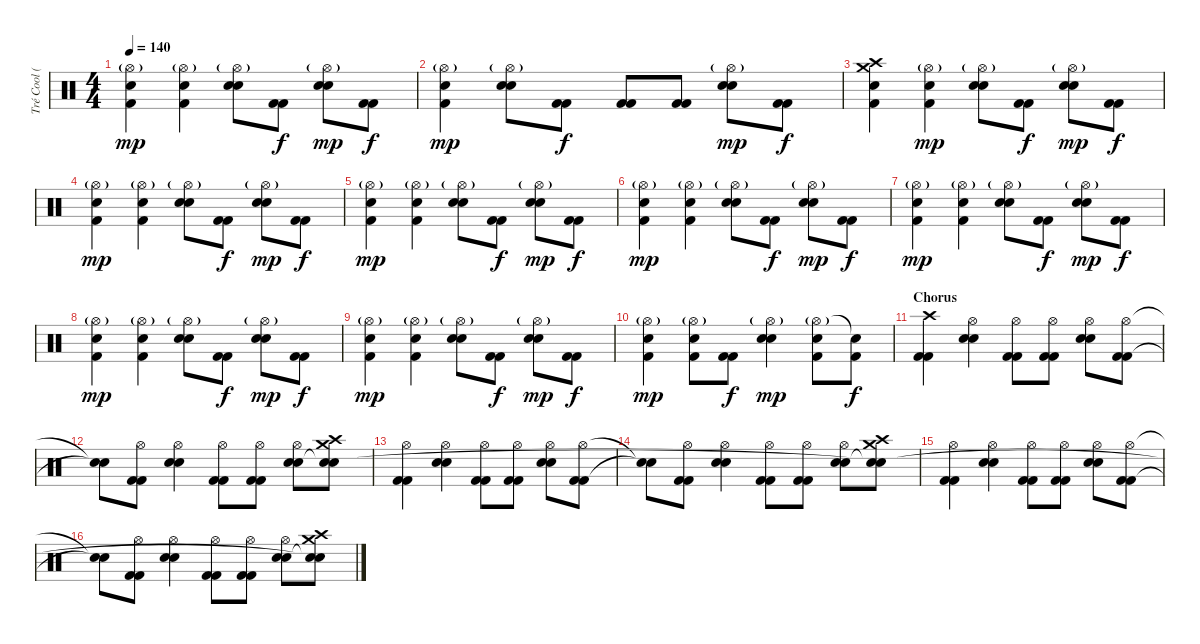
\track ("Tré Cool (Drums)" "Tré Cool (") {instrument percussion}
\staff {score}
\articulation defaults
\ts (4 4)
\tempo 140
\clef neutral
\ks c
("Hi-Hat (open)"{g} "Electric Snare (hit)" "Kick (hit) 2").4{dy mp} ("Hi-Hat (open)"{g} "Electric Snare (hit)" "Kick (hit) 2").4 ("Hi-Hat (open)"{g} "Electric Snare (hit)" "Electric Snare (hit)").8 ("Kick (hit) 2" "Kick (hit) 2").8{dy f} ("Hi-Hat (open)"{g} "Electric Snare (hit)" "Electric Snare (hit)").8{dy mp} ("Kick (hit) 2" "Kick (hit) 2").8{dy f} |
("Hi-Hat (open)"{g} "Electric Snare (hit)" "Kick (hit) 2").4{dy mp} ("Hi-Hat (open)"{g} "Electric Snare (hit)" "Electric Snare (hit)").8 ("Kick (hit) 2" "Kick (hit) 2").8{dy f} ("Kick (hit) 2" "Kick (hit) 2").8 ("Kick (hit) 2" "Kick (hit) 2").8 ("Hi-Hat (open)"{g} "Electric Snare (hit)" "Electric Snare (hit)").8{dy mp} ("Kick (hit) 2" "Kick (hit) 2").8{dy f} |
("Crash high (hit)" "Crash medium (hit)" "Electric Snare (hit)" "Kick (hit) 2").4 ("Hi-Hat (open)"{g} "Electric Snare (hit)" "Kick (hit) 2").4{dy mp} ("Hi-Hat (open)"{g} "Electric Snare (hit)" "Electric Snare (hit)").8 ("Kick (hit) 2" "Kick (hit) 2").8{dy f} ("Hi-Hat (open)"{g} "Electric Snare (hit)" "Electric Snare (hit)").8{dy mp} ("Kick (hit) 2" "Kick (hit) 2").8{dy f} |
("Hi-Hat (open)"{g} "Electric Snare (hit)" "Kick (hit) 2").4{dy mp} ("Hi-Hat (open)"{g} "Electric Snare (hit)" "Kick (hit) 2").4 ("Hi-Hat (open)"{g} "Electric Snare (hit)" "Electric Snare (hit)").8 ("Kick (hit) 2" "Kick (hit) 2").8{dy f} ("Hi-Hat (open)"{g} "Electric Snare (hit)" "Electric Snare (hit)").8{dy mp} ("Kick (hit) 2" "Kick (hit) 2").8{dy f} |
("Hi-Hat (open)"{g} "Electric Snare (hit)" "Kick (hit) 2").4{dy mp} ("Hi-Hat (open)"{g} "Electric Snare (hit)" "Kick (hit) 2").4 ("Hi-Hat (open)"{g} "Electric Snare (hit)" "Electric Snare (hit)").8 ("Kick (hit) 2" "Kick (hit) 2").8{dy f} ("Hi-Hat (open)"{g} "Electric Snare (hit)" "Electric Snare (hit)").8{dy mp} ("Kick (hit) 2" "Kick (hit) 2").8{dy f} |
("Hi-Hat (open)"{g} "Electric Snare (hit)" "Kick (hit) 2").4{dy mp} ("Hi-Hat (open)"{g} "Electric Snare (hit)" "Kick (hit) 2").4 ("Hi-Hat (open)"{g} "Electric Snare (hit)" "Electric Snare (hit)").8 ("Kick (hit) 2" "Kick (hit) 2").8{dy f} ("Hi-Hat (open)"{g} "Electric Snare (hit)" "Electric Snare (hit)").8{dy mp} ("Kick (hit) 2" "Kick (hit) 2").8{dy f} |
("Hi-Hat (open)"{g} "Electric Snare (hit)" "Kick (hit) 2").4{dy mp} ("Hi-Hat (open)"{g} "Electric Snare (hit)" "Kick (hit) 2").4 ("Hi-Hat (open)"{g} "Electric Snare (hit)" "Electric Snare (hit)").8 ("Kick (hit) 2" "Kick (hit) 2").8{dy f} ("Hi-Hat (open)"{g} "Electric Snare (hit)" "Electric Snare (hit)").8{dy mp} ("Kick (hit) 2" "Kick (hit) 2").8{dy f} |
("Hi-Hat (open)"{g} "Electric Snare (hit)" "Kick (hit) 2").4{dy mp} ("Hi-Hat (open)"{g} "Electric Snare (hit)" "Kick (hit) 2").4 ("Hi-Hat (open)"{g} "Electric Snare (hit)" "Electric Snare (hit)").8 ("Kick (hit) 2" "Kick (hit) 2").8{dy f} ("Hi-Hat (open)"{g} "Electric Snare (hit)" "Electric Snare (hit)").8{dy mp} ("Kick (hit) 2" "Kick (hit) 2").8{dy f} |
("Hi-Hat (open)"{g} "Electric Snare (hit)" "Kick (hit) 2").4{dy mp} ("Hi-Hat (open)"{g} "Electric Snare (hit)" "Kick (hit) 2").4 ("Hi-Hat (open)"{g} "Electric Snare (hit)" "Electric Snare (hit)").8 ("Kick (hit) 2" "Kick (hit) 2").8{dy f} ("Hi-Hat (open)"{g} "Electric Snare (hit)" "Electric Snare (hit)").8{dy mp} ("Kick (hit) 2" "Kick (hit) 2").8{dy f} |
("Hi-Hat (open)"{g} "Electric Snare (hit)" "Kick (hit) 2").4{dy mp} ("Hi-Hat (open)"{g} "Electric Snare (hit)" "Kick (hit) 2").8 ("Kick (hit) 2" "Kick (hit) 2").8{dy f} ("Hi-Hat (open)"{g} "Electric Snare (hit)" "Electric Snare (hit)").4{dy mp} ("Hi-Hat (open)"{g} "Electric Snare (hit)"{tr (38 64)} "Kick (hit) 2").8 ("Electric Snare (hit)"{t} "Kick (hit) 2").8{dy f} |
\section ("" "Chorus")
("Crash high (hit)" "Kick (hit) 2" "Kick (hit) 2").4 ("Hi-Hat (open)" "Electric Snare (hit)" "Electric Snare (hit)").4 ("Hi-Hat (open)" "Kick (hit) 2" "Kick (hit) 2").8 ("Hi-Hat (open)" "Kick (hit) 2" "Kick (hit) 2").8 ("Hi-Hat (open)" "Electric Snare (hit)" "Electric Snare (hit)").8 ("Hi-Hat (open)" "Kick (hit) 2" "Kick (hit) 2").8 |
("Snare (hit)"{t} "Snare (hit)"{t}).8 ("Hi-Hat (open)" "Kick (hit) 2" "Kick (hit) 2").8 ("Hi-Hat (open)" "Electric Snare (hit)" "Electric Snare (hit)").4 ("Hi-Hat (open)" "Kick (hit) 2" "Kick (hit) 2").8 ("Hi-Hat (open)" "Kick (hit) 2" "Kick (hit) 2").8 ("Hi-Hat (open)" "Electric Snare (hit)" "Electric Snare (hit)").8 ("Crash high (hit)" "Crash medium (hit)" "Snare (hit)"{t} "Snare (hit)").8 |
("Hi-Hat (open)" "Kick (hit) 2" "Kick (hit) 2").4 ("Hi-Hat (open)" "Electric Snare (hit)" "Electric Snare (hit)").4 ("Hi-Hat (open)" "Kick (hit) 2" "Kick (hit) 2").8 ("Hi-Hat (open)" "Kick (hit) 2" "Kick (hit) 2").8 ("Hi-Hat (open)" "Electric Snare (hit)" "Electric Snare (hit)").8 ("Hi-Hat (open)" "Kick (hit) 2" "Kick (hit) 2").8 |
("Snare (hit)"{t} "Snare (hit)"{t}).8 ("Hi-Hat (open)" "Kick (hit) 2" "Kick (hit) 2").8 ("Hi-Hat (open)" "Electric Snare (hit)" "Electric Snare (hit)").4 ("Hi-Hat (open)" "Kick (hit) 2" "Kick (hit) 2").8 ("Hi-Hat (open)" "Kick (hit) 2" "Kick (hit) 2").8 ("Hi-Hat (open)" "Electric Snare (hit)" "Electric Snare (hit)").8 ("Crash high (hit)" "Crash medium (hit)" "Snare (hit)"{t} "Snare (hit)"{t}).8 |
("Hi-Hat (open)" "Kick (hit) 2" "Kick (hit) 2").4 ("Hi-Hat (open)" "Electric Snare (hit)" "Electric Snare (hit)").4 ("Hi-Hat (open)" "Kick (hit) 2" "Kick (hit) 2").8 ("Hi-Hat (open)" "Kick (hit) 2" "Kick (hit) 2").8 ("Hi-Hat (open)" "Electric Snare (hit)" "Electric Snare (hit)").8 ("Hi-Hat (open)" "Kick (hit) 2" "Kick (hit) 2").8 |
("Snare (hit)"{t} "Snare (hit)"{t}).8 ("Hi-Hat (open)" "Kick (hit) 2" "Kick (hit) 2").8 ("Hi-Hat (open)" "Electric Snare (hit)" "Electric Snare (hit)").4 ("Hi-Hat (open)" "Kick (hit) 2" "Kick (hit) 2").8 ("Hi-Hat (open)" "Kick (hit) 2" "Kick (hit) 2").8 ("Hi-Hat (open)" "Electric Snare (hit)" "Electric Snare (hit)").8 ("Crash high (hit)" "Crash medium (hit)" "Snare (hit)"{t} "Snare (hit)"{t}).8
